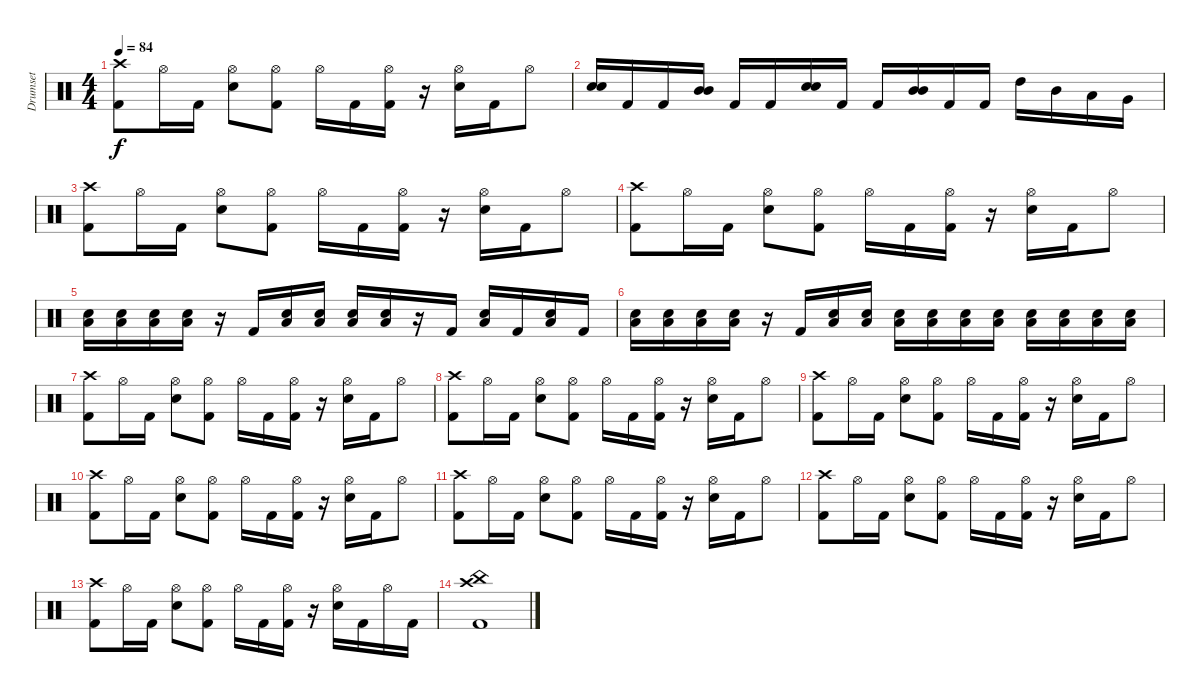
\track ("Drumset" "Drumset") {instrument percussion}
\staff {score}
\articulation defaults
\ts (4 4)
\tempo 84
\clef neutral
\ks c
("Crash high (hit)" "Kick (hit) 2").8{dy f} "Hi-Hat (open)".16 "Kick (hit) 2".16 ("Hi-Hat (open)" "Snare (hit) 2").8 ("Hi-Hat (open)" "Kick (hit) 2").8 "Hi-Hat (open)".16 "Kick (hit) 2".16 ("Hi-Hat (open)" "Kick (hit) 2").16 r.16 ("Hi-Hat (open)" "Snare (hit) 2").16 "Kick (hit) 2".16 "Hi-Hat (open)".8 |
("Snare (hit) 2" "Snare (hit) 2").16 "Kick (hit) 2".16 "Kick (hit) 2".16 ("Mid Tom (hit)" "Mid Tom (hit)").16 "Kick (hit) 2".16 "Kick (hit) 2".16 ("Snare (hit) 2" "Snare (hit) 2").16 "Kick (hit) 2".16 "Kick (hit) 2".16 ("Mid Tom (hit)" "Mid Tom (hit)").16 "Kick (hit) 2".16 "Kick (hit) 2".16 "High Tom (hit)".16 "Mid Tom (hit)".16 "Low Tom (hit)".16 "Very Low Tom (hit)".16 |
("Crash high (hit)" "Kick (hit) 2").8 "Hi-Hat (open)".16 "Kick (hit) 2".16 ("Hi-Hat (open)" "Snare (hit) 2").8 ("Hi-Hat (open)" "Kick (hit) 2").8 "Hi-Hat (open)".16 "Kick (hit) 2".16 ("Hi-Hat (open)" "Kick (hit) 2").16 r.16 ("Hi-Hat (open)" "Snare (hit) 2").16 "Kick (hit) 2".16 "Hi-Hat (open)".8 |
("Crash high (hit)" "Kick (hit) 2").8 "Hi-Hat (open)".16 "Kick (hit) 2".16 ("Hi-Hat (open)" "Snare (hit) 2").8 ("Hi-Hat (open)" "Kick (hit) 2").8 "Hi-Hat (open)".16 "Kick (hit) 2".16 ("Hi-Hat (open)" "Kick (hit) 2").16 r.16 ("Hi-Hat (open)" "Snare (hit) 2").16 "Kick (hit) 2".16 "Hi-Hat (open)".8 |
("Snare (hit) 2" "Low Floor Tom (hit)").16 ("Snare (hit) 2" "Low Floor Tom (hit)").16 ("Snare (hit) 2" "Low Floor Tom (hit)").16 ("Snare (hit) 2" "Low Floor Tom (hit)").16 r.16 "Kick (hit) 2".16 ("Snare (hit) 2" "Low Floor Tom (hit)").16 ("Snare (hit) 2" "Low Floor Tom (hit)").16 ("Snare (hit) 2" "Low Floor Tom (hit)").16 ("Snare (hit) 2" "Low Floor Tom (hit)").16 r.16 "Kick (hit) 2".16 ("Snare (hit) 2" "Low Floor Tom (hit)").16 "Kick (hit) 2".16 ("Snare (hit) 2" "Low Floor Tom (hit)").16 "Kick (hit) 2".16 |
("Snare (hit) 2" "Low Floor Tom (hit)").16 ("Snare (hit) 2" "Low Floor Tom (hit)").16 ("Snare (hit) 2" "Low Floor Tom (hit)").16 ("Snare (hit) 2" "Low Floor Tom (hit)").16 r.16 "Kick (hit) 2".16 ("Snare (hit) 2" "Low Floor Tom (hit)").16 ("Snare (hit) 2" "Low Floor Tom (hit)").16 ("Snare (hit) 2" "Low Floor Tom (hit)").16 ("Snare (hit) 2" "Low Floor Tom (hit)").16 ("Snare (hit) 2" "Low Floor Tom (hit)").16 ("Snare (hit) 2" "Low Floor Tom (hit)").16 ("Snare (hit) 2" "Low Floor Tom (hit)").16 ("Snare (hit) 2" "Low Floor Tom (hit)").16 ("Snare (hit) 2" "Low Floor Tom (hit)").16 ("Snare (hit) 2" "Low Floor Tom (hit)").16 |
("Crash high (hit)" "Kick (hit) 2").8 "Hi-Hat (open)".16 "Kick (hit) 2".16 ("Hi-Hat (open)" "Snare (hit) 2").8 ("Hi-Hat (open)" "Kick (hit) 2").8 "Hi-Hat (open)".16 "Kick (hit) 2".16 ("Hi-Hat (open)" "Kick (hit) 2").16 r.16 ("Hi-Hat (open)" "Snare (hit) 2").16 "Kick (hit) 2".16 "Hi-Hat (open)".8 |
("Crash high (hit)" "Kick (hit) 2").8 "Hi-Hat (open)".16 "Kick (hit) 2".16 ("Hi-Hat (open)" "Snare (hit) 2").8 ("Hi-Hat (open)" "Kick (hit) 2").8 "Hi-Hat (open)".16 "Kick (hit) 2".16 ("Hi-Hat (open)" "Kick (hit) 2").16 r.16 ("Hi-Hat (open)" "Snare (hit) 2").16 "Kick (hit) 2".16 "Hi-Hat (open)".8 |
("Crash high (hit)" "Kick (hit) 2").8 "Hi-Hat (open)".16 "Kick (hit) 2".16 ("Hi-Hat (open)" "Snare (hit) 2").8 ("Hi-Hat (open)" "Kick (hit) 2").8 "Hi-Hat (open)".16 "Kick (hit) 2".16 ("Hi-Hat (open)" "Kick (hit) 2").16 r.16 ("Hi-Hat (open)" "Snare (hit) 2").16 "Kick (hit) 2".16 "Hi-Hat (open)".8 |
("Crash high (hit)" "Kick (hit) 2").8 "Hi-Hat (open)".16 "Kick (hit) 2".16 ("Hi-Hat (open)" "Snare (hit) 2").8 ("Hi-Hat (open)" "Kick (hit) 2").8 "Hi-Hat (open)".16 "Kick (hit) 2".16 ("Hi-Hat (open)" "Kick (hit) 2").16 r.16 ("Hi-Hat (open)" "Snare (hit) 2").16 "Kick (hit) 2".16 "Hi-Hat (open)".8 |
("Crash high (hit)" "Kick (hit) 2").8 "Hi-Hat (open)".16 "Kick (hit) 2".16 ("Hi-Hat (open)" "Snare (hit) 2").8 ("Hi-Hat (open)" "Kick (hit) 2").8 "Hi-Hat (open)".16 "Kick (hit) 2".16 ("Hi-Hat (open)" "Kick (hit) 2").16 r.16 ("Hi-Hat (open)" "Snare (hit) 2").16 "Kick (hit) 2".16 "Hi-Hat (open)".8 |
("Crash high (hit)" "Kick (hit) 2").8 "Hi-Hat (open)".16 "Kick (hit) 2".16 ("Hi-Hat (open)" "Snare (hit) 2").8 ("Hi-Hat (open)" "Kick (hit) 2").8 "Hi-Hat (open)".16 "Kick (hit) 2".16 ("Hi-Hat (open)" "Kick (hit) 2").16 r.16 ("Hi-Hat (open)" "Snare (hit) 2").16 "Kick (hit) 2".16 "Hi-Hat (open)".8 |
("Crash high (hit)" "Kick (hit) 2").8 "Hi-Hat (open)".16 "Kick (hit) 2".16 ("Hi-Hat (open)" "Snare (hit) 2").8 ("Hi-Hat (open)" "Kick (hit) 2").8 "Hi-Hat (open)".16 "Kick (hit) 2".16 ("Hi-Hat (open)" "Kick (hit) 2").16 r.16 ("Hi-Hat (open)" "Snare (hit) 2").16 "Kick (hit) 2".16 "Hi-Hat (open)".16 "Kick (hit) 2".16 |
("Crash high (hit)" "China (hit)" "Kick (hit) 2").1
